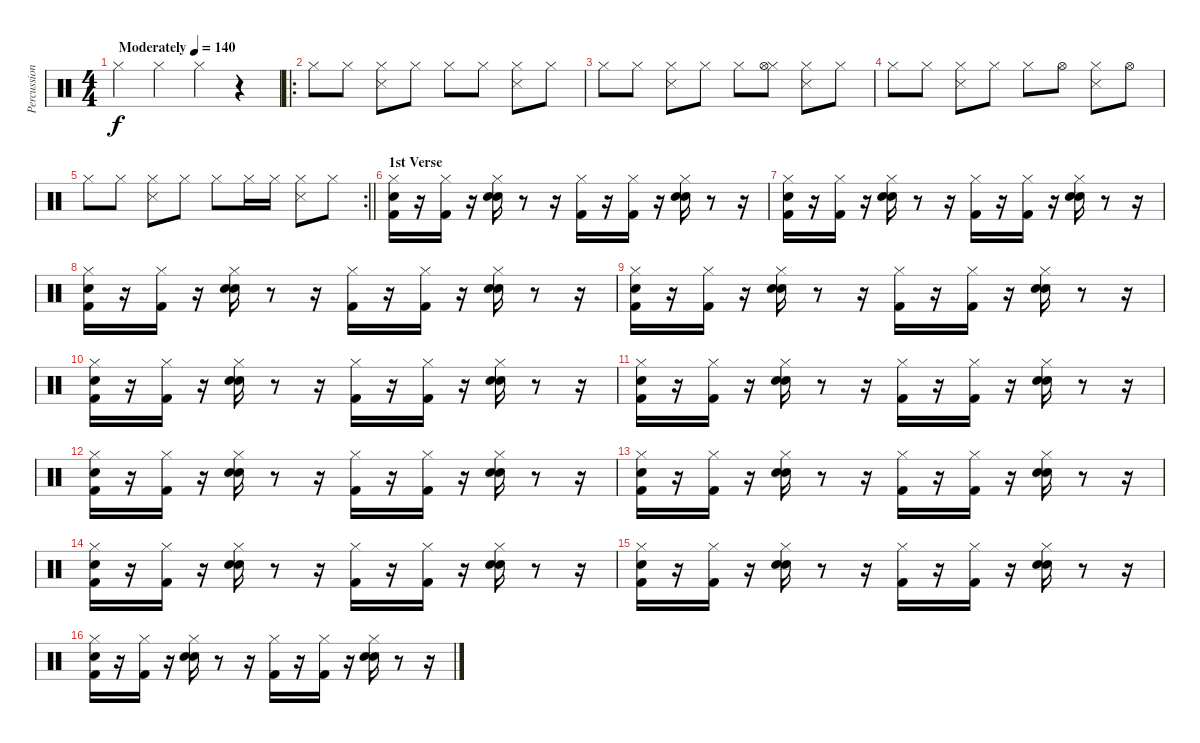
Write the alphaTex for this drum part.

\track ("Percussion" "Percussion") {instrument percussion}
\staff {score}
\articulation defaults
\ts (4 4)
\tempo (140 "Moderately")
\clef neutral
\ks c "Hi-Hat (closed)".4{dy f} "Hi-Hat (closed)".4 "Hi-Hat (closed)".4
r.4 |
\ro "Hi-Hat (closed)".8 "Hi-Hat (closed)".8
("Hi-Hat (closed)" "Snare (side stick) 3").8 "Hi-Hat (closed)".8 "Hi-Hat (closed)".8 "Hi-Hat (closed)".8 ("Hi-Hat (closed)" "Snare (side stick) 3").8 "Hi-Hat (closed)".8 |
"Hi-Hat (closed)".8 "Hi-Hat (closed)".8 ("Hi-Hat (closed)" "Snare (side stick) 3").8 "Hi-Hat (closed)".8 "Hi-Hat (closed)".8 ("Hi-Hat (closed)" "Hi-Hat (open)").8 ("Hi-Hat (closed)" "Snare (side stick) 3").8 "Hi-Hat (closed)".8 |
"Hi-Hat (closed)".8 "Hi-Hat (closed)".8 ("Hi-Hat (closed)" "Snare (side stick) 3").8 "Hi-Hat (closed)".8 "Hi-Hat (closed)".8 "Hi-Hat (open)".8 ("Hi-Hat (closed)" "Snare (side stick) 3").8 "Hi-Hat (open)".8 |
\rc 2
\barLineRight lightlight "Hi-Hat (closed)".8 "Hi-Hat (closed)".8
("Hi-Hat (closed)" "Snare (side stick) 3").8 "Hi-Hat (closed)".8 "Hi-Hat (closed)".8 "Hi-Hat (closed)".16 "Hi-Hat (closed)".16 ("Hi-Hat (closed)" "Snare (side stick) 3").8 "Hi-Hat (closed)".8 |
\section ("" "1st Verse")
("Snare (hit)" "Kick (hit) 2" "Hi-Hat (closed)").16 r.16 ("Kick (hit) 2" "Hi-Hat (closed)").16 r.16 ("Hand Clap (hit)" "Hi-Hat (closed)" "Snare (hit) 2").16 r.8 r.16 ("Hi-Hat (closed)" "Kick (hit) 2").16 r.16 ("Hi-Hat (closed)" "Kick (hit) 2").16 r.16 ("Snare (hit) 2" "Hand Clap (hit)" "Hi-Hat (closed)").16 r.8 r.16 |
("Snare (hit)" "Kick (hit) 2" "Hi-Hat (closed)").16 r.16 ("Kick (hit) 2" "Hi-Hat (closed)").16 r.16 ("Hand Clap (hit)" "Hi-Hat (closed)" "Snare (hit) 2").16 r.8 r.16 ("Hi-Hat (closed)" "Kick (hit) 2").16 r.16 ("Hi-Hat (closed)" "Kick (hit) 2").16 r.16 ("Snare (hit) 2" "Hand Clap (hit)" "Hi-Hat (closed)").16 r.8 r.16 |
("Snare (hit)" "Kick (hit) 2" "Hi-Hat (closed)").16 r.16 ("Kick (hit) 2" "Hi-Hat (closed)").16 r.16 ("Hand Clap (hit)" "Hi-Hat (closed)" "Snare (hit) 2").16 r.8 r.16 ("Hi-Hat (closed)" "Kick (hit) 2").16 r.16 ("Hi-Hat (closed)" "Kick (hit) 2").16 r.16 ("Snare (hit) 2" "Hand Clap (hit)" "Hi-Hat (closed)").16 r.8 r.16 |
("Snare (hit)" "Kick (hit) 2" "Hi-Hat (closed)").16 r.16 ("Kick (hit) 2" "Hi-Hat (closed)").16 r.16 ("Hand Clap (hit)" "Hi-Hat (closed)" "Snare (hit) 2").16 r.8 r.16 ("Hi-Hat (closed)" "Kick (hit) 2").16 r.16 ("Hi-Hat (closed)" "Kick (hit) 2").16 r.16 ("Snare (hit) 2" "Hand Clap (hit)" "Hi-Hat (closed)").16 r.8 r.16 |
("Snare (hit)" "Kick (hit) 2" "Hi-Hat (closed)").16 r.16 ("Kick (hit) 2" "Hi-Hat (closed)").16 r.16 ("Hand Clap (hit)" "Hi-Hat (closed)" "Snare (hit) 2").16 r.8 r.16 ("Hi-Hat (closed)" "Kick (hit) 2").16 r.16 ("Hi-Hat (closed)" "Kick (hit) 2").16 r.16 ("Snare (hit) 2" "Hand Clap (hit)" "Hi-Hat (closed)").16 r.8 r.16 |
("Snare (hit)" "Kick (hit) 2" "Hi-Hat (closed)").16 r.16 ("Kick (hit) 2" "Hi-Hat (closed)").16 r.16 ("Hand Clap (hit)" "Hi-Hat (closed)" "Snare (hit) 2").16 r.8 r.16 ("Hi-Hat (closed)" "Kick (hit) 2").16 r.16 ("Hi-Hat (closed)" "Kick (hit) 2").16 r.16 ("Snare (hit) 2" "Hand Clap (hit)" "Hi-Hat (closed)").16 r.8 r.16 |
("Snare (hit)" "Kick (hit) 2" "Hi-Hat (closed)").16 r.16 ("Kick (hit) 2" "Hi-Hat (closed)").16 r.16 ("Hand Clap (hit)" "Hi-Hat (closed)" "Snare (hit) 2").16 r.8 r.16 ("Hi-Hat (closed)" "Kick (hit) 2").16 r.16 ("Hi-Hat (closed)" "Kick (hit) 2").16 r.16 ("Snare (hit) 2" "Hand Clap (hit)" "Hi-Hat (closed)").16 r.8 r.16 |
("Snare (hit)" "Kick (hit) 2" "Hi-Hat (closed)").16 r.16 ("Kick (hit) 2" "Hi-Hat (closed)").16 r.16 ("Hand Clap (hit)" "Hi-Hat (closed)" "Snare (hit) 2").16 r.8 r.16 ("Hi-Hat (closed)" "Kick (hit) 2").16 r.16 ("Hi-Hat (closed)" "Kick (hit) 2").16 r.16 ("Snare (hit) 2" "Hand Clap (hit)" "Hi-Hat (closed)").16 r.8 r.16 |
("Snare (hit)" "Kick (hit) 2" "Hi-Hat (closed)").16 r.16 ("Kick (hit) 2" "Hi-Hat (closed)").16 r.16 ("Hand Clap (hit)" "Hi-Hat (closed)" "Snare (hit) 2").16 r.8 r.16 ("Hi-Hat (closed)" "Kick (hit) 2").16 r.16 ("Hi-Hat (closed)" "Kick (hit) 2").16 r.16 ("Snare (hit) 2" "Hand Clap (hit)" "Hi-Hat (closed)").16 r.8 r.16 |
("Snare (hit)" "Kick (hit) 2" "Hi-Hat (closed)").16 r.16 ("Kick (hit) 2" "Hi-Hat (closed)").16 r.16 ("Hand Clap (hit)" "Hi-Hat (closed)" "Snare (hit) 2").16 r.8 r.16 ("Hi-Hat (closed)" "Kick (hit) 2").16 r.16 ("Hi-Hat (closed)" "Kick (hit) 2").16 r.16 ("Snare (hit) 2" "Hand Clap (hit)" "Hi-Hat (closed)").16 r.8 r.16 |
("Snare (hit)" "Kick (hit) 2" "Hi-Hat (closed)").16 r.16 ("Kick (hit) 2" "Hi-Hat (closed)").16 r.16 ("Hand Clap (hit)" "Hi-Hat (closed)" "Snare (hit) 2").16 r.8 r.16 ("Hi-Hat (closed)" "Kick (hit) 2").16 r.16 ("Hi-Hat (closed)" "Kick (hit) 2").16 r.16 ("Snare (hit) 2" "Hand Clap (hit)" "Hi-Hat (closed)").16 r.8 r.16
